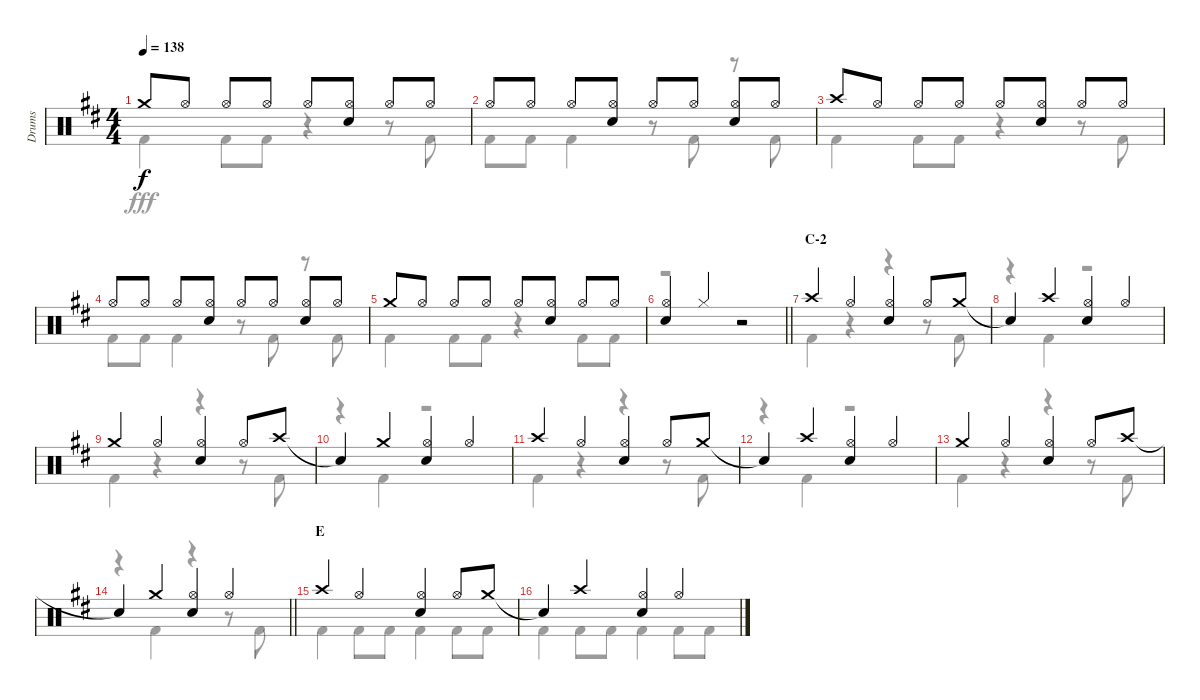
\track ("Drums" "Drums") {instrument percussion}
\staff {score}
\articulation defaults
\voice
\ts (4 4)
\tempo 138
\clef neutral
\ks d "Crash medium (hit)".8{dy f} "Hi-Hat (open)".8 "Hi-Hat (open)".8 "Hi-Hat (open)".8 "Hi-Hat (open)".8
("Hi-Hat (open)" "Snare (hit) 2").8 "Hi-Hat (open)".8 "Hi-Hat (open)".8 |
"Hi-Hat (open)".8 "Hi-Hat (open)".8 "Hi-Hat (open)".8 ("Hi-Hat (open)" "Snare (hit) 2").8 "Hi-Hat (open)".8 "Hi-Hat (open)".8 ("Hi-Hat (open)" "Snare (hit) 2").8 "Hi-Hat (open)".8 |
"Crash high (hit)".8 "Hi-Hat (open)".8 "Hi-Hat (open)".8 "Hi-Hat (open)".8 "Hi-Hat (open)".8 ("Hi-Hat (open)" "Snare (hit) 2").8 "Hi-Hat (open)".8 "Hi-Hat (open)".8 |
"Hi-Hat (open)".8 "Hi-Hat (open)".8 "Hi-Hat (open)".8 ("Hi-Hat (open)" "Snare (hit) 2").8 "Hi-Hat (open)".8 "Hi-Hat (open)".8 ("Hi-Hat (open)" "Snare (hit) 2").8 "Hi-Hat (open)".8 |
"Crash medium (hit)".8 "Hi-Hat (open)".8 "Hi-Hat (open)".8 "Hi-Hat (open)".8 "Hi-Hat (open)".8 ("Hi-Hat (open)" "Snare (hit) 2").8 "Hi-Hat (open)".8 "Hi-Hat (open)".8 |
\barLineRight lightlight
("Hi-Hat (open)" "Snare (hit) 2").4 "Hi-Hat (closed)".4 r.2 |
\section ("" "C-2")
"Crash high (hit)".4 "Hi-Hat (open)".4 ("Hi-Hat (open)" "Snare (hit) 2").4 "Hi-Hat (open)".8 "Crash medium (hit)".8 |
"Snare (hit)"{t}.4 "Crash high (hit)".4 ("Hi-Hat (open)" "Snare (hit) 2").4 "Hi-Hat (open)".4 |
"Crash medium (hit)".4 "Hi-Hat (open)".4 ("Hi-Hat (open)" "Snare (hit) 2").4 "Hi-Hat (open)".8 "Crash high (hit)".8 |
"Snare (hit)"{t}.4 "Crash medium (hit)".4 ("Hi-Hat (open)" "Snare (hit) 2").4 "Hi-Hat (open)".4 |
"Crash high (hit)".4 "Hi-Hat (open)".4 ("Hi-Hat (open)" "Snare (hit) 2").4 "Hi-Hat (open)".8 "Crash medium (hit)".8 |
"Snare (hit)"{t}.4 "Crash high (hit)".4 ("Hi-Hat (open)" "Snare (hit) 2").4 "Hi-Hat (open)".4 |
"Crash medium (hit)".4 "Hi-Hat (open)".4 ("Hi-Hat (open)" "Snare (hit) 2").4 "Hi-Hat (open)".8 "Crash high (hit)".8 |
\barLineRight lightlight "Snare (hit)"{t}.4 "Crash medium (hit)".4
("Hi-Hat (open)" "Snare (hit) 2").4 "Hi-Hat (open)".4 |
\section ("" "E")
"Crash high (hit)".4 "Hi-Hat (open)".4 ("Hi-Hat (open)" "Snare (hit) 2").4 "Hi-Hat (open)".8 "Crash medium (hit)".8 |
"Snare (hit)"{t}.4 "Crash high (hit)".4 ("Hi-Hat (open)" "Snare (hit) 2").4 "Hi-Hat (open)".4
\voice
\clef neutral
\ottava regular
\simile none
\ks d "Kick (hit) 2".4{dy fff} "Kick (hit) 2".8 "Kick (hit) 2".8
r.4 r.8 "Kick (hit) 2".8 |
"Kick (hit) 2".8 "Kick (hit) 2".8 "Kick (hit) 2".4 r.8 "Kick (hit) 2".8 r.8 "Kick (hit) 2".8 |
"Kick (hit) 2".4 "Kick (hit) 2".8 "Kick (hit) 2".8 r.4 r.8 "Kick (hit) 2".8 |
"Kick (hit) 2".8 "Kick (hit) 2".8 "Kick (hit) 2".4 r.8 "Kick (hit) 2".8 r.8 "Kick (hit) 2".8 |
"Kick (hit) 2".4 "Kick (hit) 2".8 "Kick (hit) 2".8 r.4 "Kick (hit) 2".8 "Kick (hit) 2".8 |
\barLineRight lightlight
r.1 |
"Kick (hit) 2".4 r.4 r.4 r.8 "Kick (hit) 2".8 |
r.4 "Kick (hit) 2".4 r.2 |
"Kick (hit) 2".4 r.4 r.4 r.8 "Kick (hit) 2".8 |
r.4 "Kick (hit) 2".4 r.2 |
"Kick (hit) 2".4 r.4 r.4 r.8 "Kick (hit) 2".8 |
r.4 "Kick (hit) 2".4 r.2 |
"Kick (hit) 2".4 r.4 r.4 r.8 "Kick (hit) 2".8 |
\barLineRight lightlight
r.4 "Kick (hit) 2".4 r.4 r.8 "Kick (hit) 2".8 |
"Kick (hit) 2".4 "Kick (hit) 2".8 "Kick (hit) 2".8 "Kick (hit) 2".4 "Kick (hit) 2".8 "Kick (hit) 2".8 |
"Kick (hit) 2".4 "Kick (hit) 2".8 "Kick (hit) 2".8 "Kick (hit) 2".4 "Kick (hit) 2".8 "Kick (hit) 2".8
